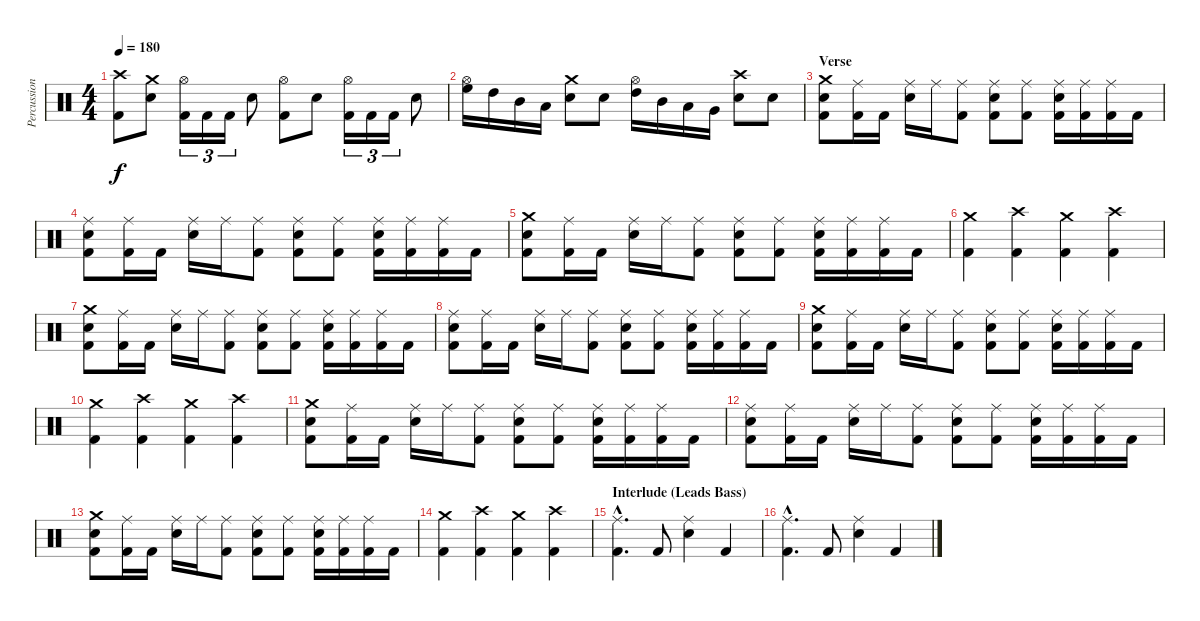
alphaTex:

\track ("Percussion" "Percussion") {instrument percussion}
\staff {score}
\articulation defaults
\ts (4 4)
\tempo 180
\clef neutral
\ks c
("Crash high (hit)" "Kick (hit) 2").8{dy f} ("Crash medium (hit)" "Snare (hit) 2").8 ("Hi-Hat (open)" "Kick (hit) 2").16{tu (3 2)} "Kick (hit) 2".16{tu (3 2)} "Kick (hit) 2".16{tu (3 2)} "Snare (hit) 2".8 ("Hi-Hat (open)" "Kick (hit) 2").8 "Snare (hit) 2".8 ("Hi-Hat (open)" "Kick (hit) 2").16{tu (3 2)} "Kick (hit) 2".16{tu (3 2)} "Kick (hit) 2".16{tu (3 2)} "Snare (hit) 2".8 |
("Hi-Hat (open)" "High Floor Tom (hit)").16 "High Tom (hit)".16 "Mid Tom (hit)".16 "Low Tom (hit)".16 ("Crash medium (hit)" "Snare (hit) 2").8 "Snare (hit) 2".8 ("Hi-Hat (open)" "High Tom (hit)").16 "Mid Tom (hit)".16 "Low Tom (hit)".16 "Very Low Tom (hit)".16 ("Crash high (hit)" "Snare (hit) 2").8 "Snare (hit) 2".8 |
\section ("" "Verse")
("Crash medium (hit)" "Snare (hit) 2" "Kick (hit) 2").8 ("Ride (middle)" "Kick (hit) 2").16 "Kick (hit) 2".16 ("Ride (middle)" "Snare (hit) 2").16 "Ride (middle)".16 ("Ride (middle)" "Kick (hit) 2").8 ("Ride (middle)" "Snare (hit) 2" "Kick (hit) 2").8 ("Ride (middle)" "Kick (hit) 2").8 ("Ride (middle)" "Snare (hit) 2" "Kick (hit) 2").16 ("Ride (middle)" "Kick (hit) 2").16 ("Ride (middle)" "Kick (hit) 2").16 "Kick (hit) 2".16 |
("Ride (middle)" "Snare (hit) 2" "Kick (hit) 2").8 ("Ride (middle)" "Kick (hit) 2").16 "Kick (hit) 2".16 ("Ride (middle)" "Snare (hit) 2").16 "Ride (middle)".16 ("Ride (middle)" "Kick (hit) 2").8 ("Ride (middle)" "Snare (hit) 2" "Kick (hit) 2").8 ("Ride (middle)" "Kick (hit) 2").8 ("Ride (middle)" "Snare (hit) 2" "Kick (hit) 2").16 ("Ride (middle)" "Kick (hit) 2").16 ("Ride (middle)" "Kick (hit) 2").16 "Kick (hit) 2".16 |
("Crash medium (hit)" "Snare (hit) 2" "Kick (hit) 2").8 ("Ride (middle)" "Kick (hit) 2").16 "Kick (hit) 2".16 ("Ride (middle)" "Snare (hit) 2").16 "Ride (middle)".16 ("Ride (middle)" "Kick (hit) 2").8 ("Ride (middle)" "Snare (hit) 2" "Kick (hit) 2").8 ("Ride (middle)" "Kick (hit) 2").8 ("Ride (middle)" "Snare (hit) 2" "Kick (hit) 2").16 ("Ride (middle)" "Kick (hit) 2").16 ("Ride (middle)" "Kick (hit) 2").16 "Kick (hit) 2".16 |
("Crash medium (hit)" "Kick (hit) 2").4 ("Crash high (hit)" "Kick (hit) 2").4 ("Crash medium (hit)" "Kick (hit) 2").4 ("Crash high (hit)" "Kick (hit) 2").4 |
("Crash medium (hit)" "Snare (hit) 2" "Kick (hit) 2").8 ("Ride (middle)" "Kick (hit) 2").16 "Kick (hit) 2".16 ("Ride (middle)" "Snare (hit) 2").16 "Ride (middle)".16 ("Ride (middle)" "Kick (hit) 2").8 ("Ride (middle)" "Snare (hit) 2" "Kick (hit) 2").8 ("Ride (middle)" "Kick (hit) 2").8 ("Ride (middle)" "Snare (hit) 2" "Kick (hit) 2").16 ("Ride (middle)" "Kick (hit) 2").16 ("Ride (middle)" "Kick (hit) 2").16 "Kick (hit) 2".16 |
("Ride (middle)" "Snare (hit) 2" "Kick (hit) 2").8 ("Ride (middle)" "Kick (hit) 2").16 "Kick (hit) 2".16 ("Ride (middle)" "Snare (hit) 2").16 "Ride (middle)".16 ("Ride (middle)" "Kick (hit) 2").8 ("Ride (middle)" "Snare (hit) 2" "Kick (hit) 2").8 ("Ride (middle)" "Kick (hit) 2").8 ("Ride (middle)" "Snare (hit) 2" "Kick (hit) 2").16 ("Ride (middle)" "Kick (hit) 2").16 ("Ride (middle)" "Kick (hit) 2").16 "Kick (hit) 2".16 |
("Crash medium (hit)" "Snare (hit) 2" "Kick (hit) 2").8 ("Ride (middle)" "Kick (hit) 2").16 "Kick (hit) 2".16 ("Ride (middle)" "Snare (hit) 2").16 "Ride (middle)".16 ("Ride (middle)" "Kick (hit) 2").8 ("Ride (middle)" "Snare (hit) 2" "Kick (hit) 2").8 ("Ride (middle)" "Kick (hit) 2").8 ("Ride (middle)" "Snare (hit) 2" "Kick (hit) 2").16 ("Ride (middle)" "Kick (hit) 2").16 ("Ride (middle)" "Kick (hit) 2").16 "Kick (hit) 2".16 |
("Crash medium (hit)" "Kick (hit) 2").4 ("Crash high (hit)" "Kick (hit) 2").4 ("Crash medium (hit)" "Kick (hit) 2").4 ("Crash high (hit)" "Kick (hit) 2").4 |
("Crash medium (hit)" "Snare (hit) 2" "Kick (hit) 2").8 ("Ride (middle)" "Kick (hit) 2").16 "Kick (hit) 2".16 ("Ride (middle)" "Snare (hit) 2").16 "Ride (middle)".16 ("Ride (middle)" "Kick (hit) 2").8 ("Ride (middle)" "Snare (hit) 2" "Kick (hit) 2").8 ("Ride (middle)" "Kick (hit) 2").8 ("Ride (middle)" "Snare (hit) 2" "Kick (hit) 2").16 ("Ride (middle)" "Kick (hit) 2").16 ("Ride (middle)" "Kick (hit) 2").16 "Kick (hit) 2".16 |
("Ride (middle)" "Snare (hit) 2" "Kick (hit) 2").8 ("Ride (middle)" "Kick (hit) 2").16 "Kick (hit) 2".16 ("Ride (middle)" "Snare (hit) 2").16 "Ride (middle)".16 ("Ride (middle)" "Kick (hit) 2").8 ("Ride (middle)" "Snare (hit) 2" "Kick (hit) 2").8 ("Ride (middle)" "Kick (hit) 2").8 ("Ride (middle)" "Snare (hit) 2" "Kick (hit) 2").16 ("Ride (middle)" "Kick (hit) 2").16 ("Ride (middle)" "Kick (hit) 2").16 "Kick (hit) 2".16 |
("Crash medium (hit)" "Snare (hit) 2" "Kick (hit) 2").8 ("Ride (middle)" "Kick (hit) 2").16 "Kick (hit) 2".16 ("Ride (middle)" "Snare (hit) 2").16 "Ride (middle)".16 ("Ride (middle)" "Kick (hit) 2").8 ("Ride (middle)" "Snare (hit) 2" "Kick (hit) 2").8 ("Ride (middle)" "Kick (hit) 2").8 ("Ride (middle)" "Snare (hit) 2" "Kick (hit) 2").16 ("Ride (middle)" "Kick (hit) 2").16 ("Ride (middle)" "Kick (hit) 2").16 "Kick (hit) 2".16 |
("Crash medium (hit)" "Kick (hit) 2").4 ("Crash high (hit)" "Kick (hit) 2").4 ("Crash medium (hit)" "Kick (hit) 2").4 ("Crash high (hit)" "Kick (hit) 2").4 |
\section ("" "Interlude (Leads Bass)")
("Ride (middle)"{hac} "Kick (hit) 2"{hac}).4{d} "Kick (hit) 2".8 ("Ride (middle)" "Snare (hit) 2").4 "Kick (hit) 2".4 |
("Ride (middle)"{hac} "Kick (hit) 2"{hac}).4{d} "Kick (hit) 2".8 ("Ride (middle)" "Snare (hit) 2").4 "Kick (hit) 2".4
